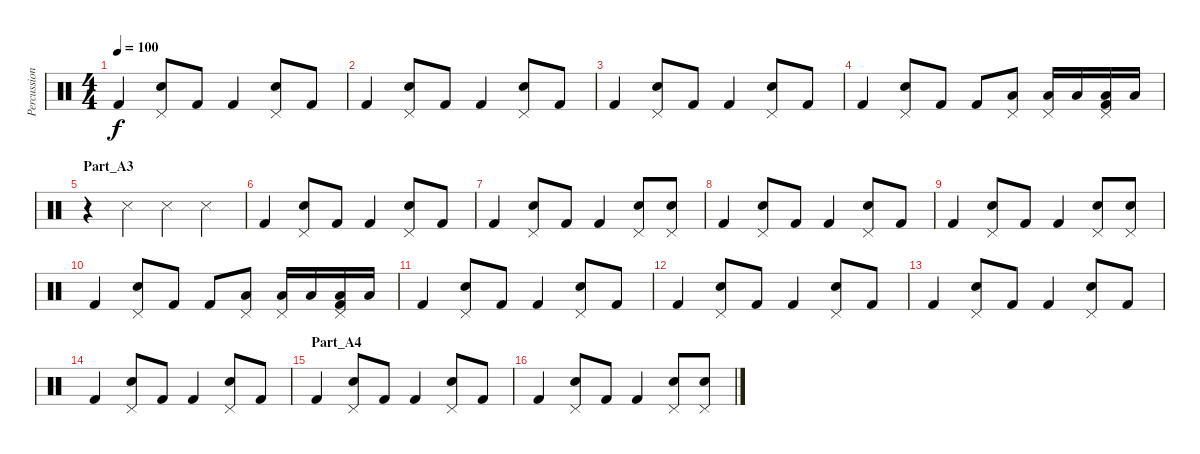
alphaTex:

\track ("Percussion" "Percussion") {instrument percussion}
\staff {score}
\articulation defaults
\ts (4 4)
\tempo 100
\clef neutral
\ks c "Kick (hit) 2".4{dy f}
("Pedal Hi-Hat (hit)" "Electric Snare (hit)").8 "Kick (hit) 2".8 "Kick (hit) 2".4 ("Pedal Hi-Hat (hit)" "Electric Snare (hit)").8 "Kick (hit) 2".8 |
"Kick (hit) 2".4 ("Pedal Hi-Hat (hit)" "Electric Snare (hit)").8 "Kick (hit) 2".8 "Kick (hit) 2".4 ("Pedal Hi-Hat (hit)" "Electric Snare (hit)").8 "Kick (hit) 2".8 |
"Kick (hit) 2".4 ("Pedal Hi-Hat (hit)" "Electric Snare (hit)").8 "Kick (hit) 2".8 "Kick (hit) 2".4 ("Pedal Hi-Hat (hit)" "Electric Snare (hit)").8 "Kick (hit) 2".8 |
"Kick (hit) 2".4 ("Pedal Hi-Hat (hit)" "Electric Snare (hit)").8 "Kick (hit) 2".8 "Kick (hit) 2".8 ("Pedal Hi-Hat (hit)" "Low Floor Tom (hit)").8 ("Pedal Hi-Hat (hit)" "Low Floor Tom (hit)").16 "Low Floor Tom (hit)".16 ("Pedal Hi-Hat (hit)" "Low Floor Tom (hit)" "Kick (hit) 2").16 "Low Floor Tom (hit)".16 |
\section ("" "Part_A3")
r.4 "Snare (side stick) 3".4 "Snare (side stick) 3".4 "Snare (side stick) 3".4 |
"Kick (hit) 2".4 ("Pedal Hi-Hat (hit)" "Electric Snare (hit)").8 "Kick (hit) 2".8 "Kick (hit) 2".4 ("Pedal Hi-Hat (hit)" "Electric Snare (hit)").8 "Kick (hit) 2".8 |
"Kick (hit) 2".4 ("Pedal Hi-Hat (hit)" "Electric Snare (hit)").8 "Kick (hit) 2".8 "Kick (hit) 2".4 ("Pedal Hi-Hat (hit)" "Electric Snare (hit)").8 ("Pedal Hi-Hat (hit)" "Electric Snare (hit)").8 |
"Kick (hit) 2".4 ("Pedal Hi-Hat (hit)" "Electric Snare (hit)").8 "Kick (hit) 2".8 "Kick (hit) 2".4 ("Pedal Hi-Hat (hit)" "Electric Snare (hit)").8 "Kick (hit) 2".8 |
"Kick (hit) 2".4 ("Pedal Hi-Hat (hit)" "Electric Snare (hit)").8 "Kick (hit) 2".8 "Kick (hit) 2".4 ("Pedal Hi-Hat (hit)" "Electric Snare (hit)").8 ("Pedal Hi-Hat (hit)" "Electric Snare (hit)").8 |
"Kick (hit) 2".4 ("Pedal Hi-Hat (hit)" "Electric Snare (hit)").8 "Kick (hit) 2".8 "Kick (hit) 2".8 ("Pedal Hi-Hat (hit)" "Low Floor Tom (hit)").8 ("Pedal Hi-Hat (hit)" "Low Floor Tom (hit)").16 "Low Floor Tom (hit)".16 ("Pedal Hi-Hat (hit)" "Low Floor Tom (hit)" "Kick (hit) 2").16 "Low Floor Tom (hit)".16 |
"Kick (hit) 2".4 ("Pedal Hi-Hat (hit)" "Electric Snare (hit)").8 "Kick (hit) 2".8 "Kick (hit) 2".4 ("Pedal Hi-Hat (hit)" "Electric Snare (hit)").8 "Kick (hit) 2".8 |
"Kick (hit) 2".4 ("Pedal Hi-Hat (hit)" "Electric Snare (hit)").8 "Kick (hit) 2".8 "Kick (hit) 2".4 ("Pedal Hi-Hat (hit)" "Electric Snare (hit)").8 "Kick (hit) 2".8 |
"Kick (hit) 2".4 ("Pedal Hi-Hat (hit)" "Electric Snare (hit)").8 "Kick (hit) 2".8 "Kick (hit) 2".4 ("Pedal Hi-Hat (hit)" "Electric Snare (hit)").8 "Kick (hit) 2".8 |
"Kick (hit) 2".4 ("Pedal Hi-Hat (hit)" "Electric Snare (hit)").8 "Kick (hit) 2".8 "Kick (hit) 2".4 ("Pedal Hi-Hat (hit)" "Electric Snare (hit)").8 "Kick (hit) 2".8 |
\section ("" "Part_A4")
"Kick (hit) 2".4 ("Pedal Hi-Hat (hit)" "Electric Snare (hit)").8 "Kick (hit) 2".8 "Kick (hit) 2".4 ("Pedal Hi-Hat (hit)" "Electric Snare (hit)").8 "Kick (hit) 2".8 |
"Kick (hit) 2".4 ("Pedal Hi-Hat (hit)" "Electric Snare (hit)").8 "Kick (hit) 2".8 "Kick (hit) 2".4 ("Pedal Hi-Hat (hit)" "Electric Snare (hit)").8 ("Pedal Hi-Hat (hit)" "Electric Snare (hit)").8
